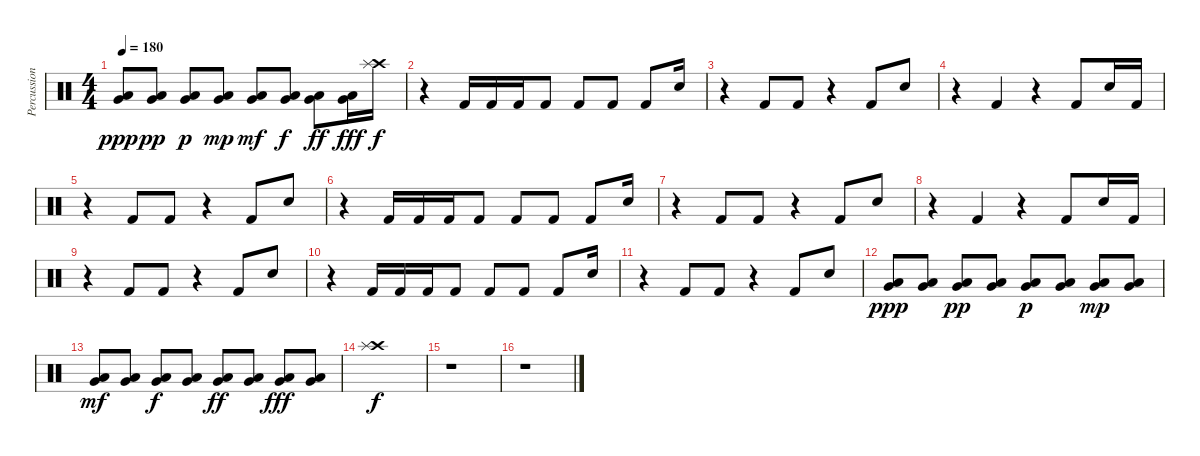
\track ("Percussion" "Percussion") {instrument percussion}
\staff {score}
\articulation defaults
\ts (4 4)
\tempo 180
\clef neutral
\ks c
("Very Low Tom (hit)" "Low Floor Tom (hit)").8{dy ppp} ("Very Low Tom (hit)" "Low Floor Tom (hit)").8{dy pp} ("Very Low Tom (hit)" "Low Floor Tom (hit)").8{dy p} ("Very Low Tom (hit)" "Low Floor Tom (hit)").8{dy mp} ("Very Low Tom (hit)" "Low Floor Tom (hit)").8{dy mf} ("Very Low Tom (hit)" "Low Floor Tom (hit)").8{dy f} ("Very Low Tom (hit)" "Low Floor Tom (hit)").8{dy ff} ("Very Low Tom (hit)" "Low Floor Tom (hit)").16{dy fff} ("Crash high (hit)" "Splash (hit)").16{dy f} |
r.4 "Kick (hit) 2".16 "Kick (hit) 2".16 "Kick (hit) 2".16 "Kick (hit) 2".8 "Kick (hit) 2".8 "Kick (hit) 2".8 "Kick (hit) 2".8 "Snare (hit) 2".16 |
r.4 "Kick (hit) 2".8 "Kick (hit) 2".8 r.4 "Kick (hit) 2".8 "Snare (hit) 2".8 |
r.4 "Kick (hit) 2".4 r.4 "Kick (hit) 2".8 "Snare (hit) 2".16 "Kick (hit) 2".16 |
r.4 "Kick (hit) 2".8 "Kick (hit) 2".8 r.4 "Kick (hit) 2".8 "Snare (hit) 2".8 |
r.4 "Kick (hit) 2".16 "Kick (hit) 2".16 "Kick (hit) 2".16 "Kick (hit) 2".8 "Kick (hit) 2".8 "Kick (hit) 2".8 "Kick (hit) 2".8 "Snare (hit) 2".16 |
r.4 "Kick (hit) 2".8 "Kick (hit) 2".8 r.4 "Kick (hit) 2".8 "Snare (hit) 2".8 |
r.4 "Kick (hit) 2".4 r.4 "Kick (hit) 2".8 "Snare (hit) 2".16 "Kick (hit) 2".16 |
r.4 "Kick (hit) 2".8 "Kick (hit) 2".8 r.4 "Kick (hit) 2".8 "Snare (hit) 2".8 |
r.4 "Kick (hit) 2".16 "Kick (hit) 2".16 "Kick (hit) 2".16 "Kick (hit) 2".8 "Kick (hit) 2".8 "Kick (hit) 2".8 "Kick (hit) 2".8 "Snare (hit) 2".16 |
r.4 "Kick (hit) 2".8 "Kick (hit) 2".8 r.4 "Kick (hit) 2".8 "Snare (hit) 2".8 |
("Very Low Tom (hit)" "Low Floor Tom (hit)").8{dy ppp} ("Very Low Tom (hit)" "Low Floor Tom (hit)").8 ("Very Low Tom (hit)" "Low Floor Tom (hit)").8{dy pp} ("Very Low Tom (hit)" "Low Floor Tom (hit)").8 ("Very Low Tom (hit)" "Low Floor Tom (hit)").8{dy p} ("Very Low Tom (hit)" "Low Floor Tom (hit)").8 ("Very Low Tom (hit)" "Low Floor Tom (hit)").8{dy mp} ("Very Low Tom (hit)" "Low Floor Tom (hit)").8 |
("Very Low Tom (hit)" "Low Floor Tom (hit)").8{dy mf} ("Very Low Tom (hit)" "Low Floor Tom (hit)").8 ("Very Low Tom (hit)" "Low Floor Tom (hit)").8{dy f} ("Very Low Tom (hit)" "Low Floor Tom (hit)").8 ("Very Low Tom (hit)" "Low Floor Tom (hit)").8{dy ff} ("Very Low Tom (hit)" "Low Floor Tom (hit)").8 ("Very Low Tom (hit)" "Low Floor Tom (hit)").8{dy fff} ("Very Low Tom (hit)" "Low Floor Tom (hit)").8 |
("Crash high (hit)" "Splash (hit)").1{dy f} |
r.1 |
r.1
